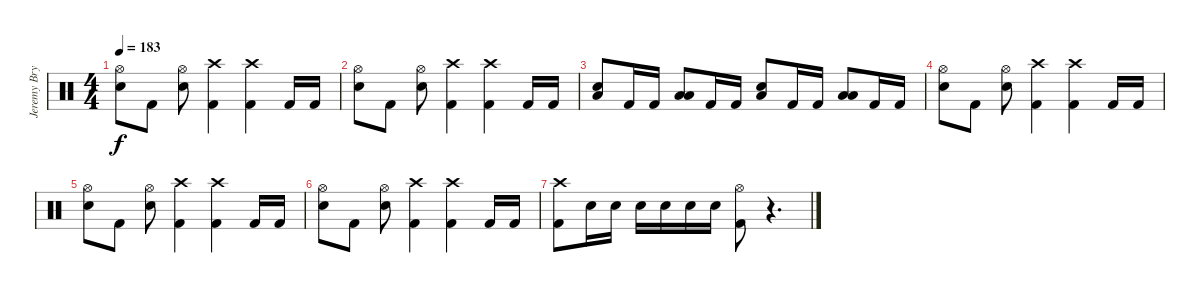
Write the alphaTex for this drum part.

\track ("Jeremy Bryan - Drums" "Jeremy Bry") {instrument percussion}
\staff {score}
\articulation defaults
\ts (4 4)
\tempo 183
\clef neutral
\ks c
("Hi-Hat (open)" "Electric Snare (hit)").8{dy f} "Kick (hit) 2".8 ("Hi-Hat (open)" "Electric Snare (hit)").8 ("Crash high (hit)" "Kick (hit) 2").4 ("Crash high (hit)" "Kick (hit) 2").4 "Kick (hit) 2".16 "Kick (hit) 2".16 |
("Hi-Hat (open)" "Electric Snare (hit)").8 "Kick (hit) 2".8 ("Hi-Hat (open)" "Electric Snare (hit)").8 ("Crash high (hit)" "Kick (hit) 2").4 ("Crash high (hit)" "Kick (hit) 2").4 "Kick (hit) 2".16 "Kick (hit) 2".16 |
("Low Floor Tom (hit)" "Electric Snare (hit)").8 "Kick (hit) 2".16 "Kick (hit) 2".16 ("Low Tom (hit)" "Low Floor Tom (hit)").8 "Kick (hit) 2".16 "Kick (hit) 2".16 ("Electric Snare (hit)" "Low Floor Tom (hit)").8 "Kick (hit) 2".16 "Kick (hit) 2".16 ("Low Tom (hit)" "Low Floor Tom (hit)").8 "Kick (hit) 2".16 "Kick (hit) 2".16 |
("Hi-Hat (open)" "Electric Snare (hit)").8 "Kick (hit) 2".8 ("Hi-Hat (open)" "Electric Snare (hit)").8 ("Crash high (hit)" "Kick (hit) 2").4 ("Crash high (hit)" "Kick (hit) 2").4 "Kick (hit) 2".16 "Kick (hit) 2".16 |
("Hi-Hat (open)" "Electric Snare (hit)").8 "Kick (hit) 2".8 ("Hi-Hat (open)" "Electric Snare (hit)").8 ("Crash high (hit)" "Kick (hit) 2").4 ("Crash high (hit)" "Kick (hit) 2").4 "Kick (hit) 2".16 "Kick (hit) 2".16 |
("Hi-Hat (open)" "Electric Snare (hit)").8 "Kick (hit) 2".8 ("Hi-Hat (open)" "Electric Snare (hit)").8 ("Crash high (hit)" "Kick (hit) 2").4 ("Crash high (hit)" "Kick (hit) 2").4 "Kick (hit) 2".16 "Kick (hit) 2".16 |
("Crash high (hit)" "Kick (hit) 2").8 "Electric Snare (hit)".16 "Electric Snare (hit)".16 "Electric Snare (hit)".16 "Electric Snare (hit)".16 "Electric Snare (hit)".16 "Electric Snare (hit)".16 ("Hi-Hat (open)" "Kick (hit) 2").8 r.4{d}
